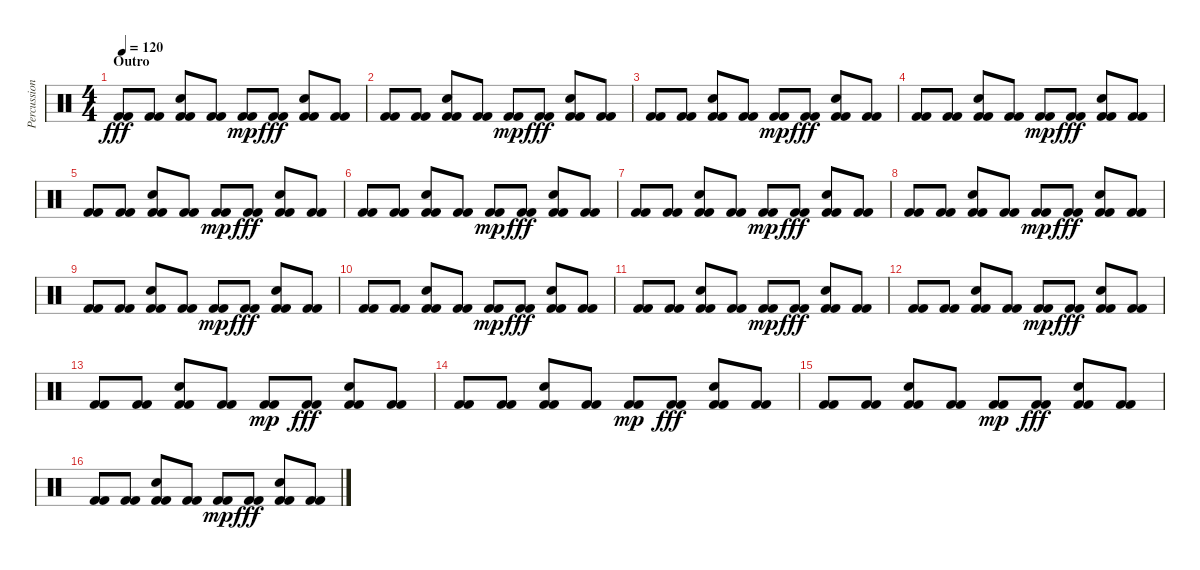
\track ("Percussion" "Percussion") {instrument percussion}
\staff {score}
\articulation defaults
\ts (4 4)
\section ("" "Outro")
\tempo 120
\clef neutral
\ks c
("Kick (hit) 2" "Kick (hit) 2").8{dy fff} ("Kick (hit) 2" "Kick (hit) 2").8 ("Snare (hit) 2" "Kick (hit) 2" "Kick (hit) 2").8 ("Kick (hit) 2" "Kick (hit) 2").8 ("Kick (hit) 2" "Kick (hit) 2").8{dy mp} ("Kick (hit) 2" "Kick (hit) 2").8{dy fff} ("Snare (hit) 2" "Kick (hit) 2" "Kick (hit) 2").8 ("Kick (hit) 2" "Kick (hit) 2").8 |
("Kick (hit) 2" "Kick (hit) 2").8 ("Kick (hit) 2" "Kick (hit) 2").8 ("Snare (hit) 2" "Kick (hit) 2" "Kick (hit) 2").8 ("Kick (hit) 2" "Kick (hit) 2").8 ("Kick (hit) 2" "Kick (hit) 2").8{dy mp} ("Kick (hit) 2" "Kick (hit) 2").8{dy fff} ("Snare (hit) 2" "Kick (hit) 2" "Kick (hit) 2").8 ("Kick (hit) 2" "Kick (hit) 2").8 |
("Kick (hit) 2" "Kick (hit) 2").8 ("Kick (hit) 2" "Kick (hit) 2").8 ("Snare (hit) 2" "Kick (hit) 2" "Kick (hit) 2").8 ("Kick (hit) 2" "Kick (hit) 2").8 ("Kick (hit) 2" "Kick (hit) 2").8{dy mp} ("Kick (hit) 2" "Kick (hit) 2").8{dy fff} ("Snare (hit) 2" "Kick (hit) 2" "Kick (hit) 2").8 ("Kick (hit) 2" "Kick (hit) 2").8 |
("Kick (hit) 2" "Kick (hit) 2").8 ("Kick (hit) 2" "Kick (hit) 2").8 ("Snare (hit) 2" "Kick (hit) 2" "Kick (hit) 2").8 ("Kick (hit) 2" "Kick (hit) 2").8 ("Kick (hit) 2" "Kick (hit) 2").8{dy mp} ("Kick (hit) 2" "Kick (hit) 2").8{dy fff} ("Snare (hit) 2" "Kick (hit) 2" "Kick (hit) 2").8 ("Kick (hit) 2" "Kick (hit) 2").8 |
("Kick (hit) 2" "Kick (hit) 2").8 ("Kick (hit) 2" "Kick (hit) 2").8 ("Snare (hit) 2" "Kick (hit) 2" "Kick (hit) 2").8 ("Kick (hit) 2" "Kick (hit) 2").8 ("Kick (hit) 2" "Kick (hit) 2").8{dy mp} ("Kick (hit) 2" "Kick (hit) 2").8{dy fff} ("Snare (hit) 2" "Kick (hit) 2" "Kick (hit) 2").8 ("Kick (hit) 2" "Kick (hit) 2").8 |
("Kick (hit) 2" "Kick (hit) 2").8 ("Kick (hit) 2" "Kick (hit) 2").8 ("Snare (hit) 2" "Kick (hit) 2" "Kick (hit) 2").8 ("Kick (hit) 2" "Kick (hit) 2").8 ("Kick (hit) 2" "Kick (hit) 2").8{dy mp} ("Kick (hit) 2" "Kick (hit) 2").8{dy fff} ("Snare (hit) 2" "Kick (hit) 2" "Kick (hit) 2").8 ("Kick (hit) 2" "Kick (hit) 2").8 |
("Kick (hit) 2" "Kick (hit) 2").8 ("Kick (hit) 2" "Kick (hit) 2").8 ("Snare (hit) 2" "Kick (hit) 2" "Kick (hit) 2").8 ("Kick (hit) 2" "Kick (hit) 2").8 ("Kick (hit) 2" "Kick (hit) 2").8{dy mp} ("Kick (hit) 2" "Kick (hit) 2").8{dy fff} ("Snare (hit) 2" "Kick (hit) 2" "Kick (hit) 2").8 ("Kick (hit) 2" "Kick (hit) 2").8 |
("Kick (hit) 2" "Kick (hit) 2").8 ("Kick (hit) 2" "Kick (hit) 2").8 ("Snare (hit) 2" "Kick (hit) 2" "Kick (hit) 2").8 ("Kick (hit) 2" "Kick (hit) 2").8 ("Kick (hit) 2" "Kick (hit) 2").8{dy mp} ("Kick (hit) 2" "Kick (hit) 2").8{dy fff} ("Snare (hit) 2" "Kick (hit) 2" "Kick (hit) 2").8 ("Kick (hit) 2" "Kick (hit) 2").8 |
("Kick (hit) 2" "Kick (hit) 2").8 ("Kick (hit) 2" "Kick (hit) 2").8 ("Snare (hit) 2" "Kick (hit) 2" "Kick (hit) 2").8 ("Kick (hit) 2" "Kick (hit) 2").8 ("Kick (hit) 2" "Kick (hit) 2").8{dy mp} ("Kick (hit) 2" "Kick (hit) 2").8{dy fff} ("Snare (hit) 2" "Kick (hit) 2" "Kick (hit) 2").8 ("Kick (hit) 2" "Kick (hit) 2").8 |
("Kick (hit) 2" "Kick (hit) 2").8 ("Kick (hit) 2" "Kick (hit) 2").8 ("Snare (hit) 2" "Kick (hit) 2" "Kick (hit) 2").8 ("Kick (hit) 2" "Kick (hit) 2").8 ("Kick (hit) 2" "Kick (hit) 2").8{dy mp} ("Kick (hit) 2" "Kick (hit) 2").8{dy fff} ("Snare (hit) 2" "Kick (hit) 2" "Kick (hit) 2").8 ("Kick (hit) 2" "Kick (hit) 2").8 |
("Kick (hit) 2" "Kick (hit) 2").8 ("Kick (hit) 2" "Kick (hit) 2").8 ("Snare (hit) 2" "Kick (hit) 2" "Kick (hit) 2").8 ("Kick (hit) 2" "Kick (hit) 2").8 ("Kick (hit) 2" "Kick (hit) 2").8{dy mp} ("Kick (hit) 2" "Kick (hit) 2").8{dy fff} ("Snare (hit) 2" "Kick (hit) 2" "Kick (hit) 2").8 ("Kick (hit) 2" "Kick (hit) 2").8 |
("Kick (hit) 2" "Kick (hit) 2").8 ("Kick (hit) 2" "Kick (hit) 2").8 ("Snare (hit) 2" "Kick (hit) 2" "Kick (hit) 2").8 ("Kick (hit) 2" "Kick (hit) 2").8 ("Kick (hit) 2" "Kick (hit) 2").8{dy mp} ("Kick (hit) 2" "Kick (hit) 2").8{dy fff} ("Snare (hit) 2" "Kick (hit) 2" "Kick (hit) 2").8 ("Kick (hit) 2" "Kick (hit) 2").8 |
("Kick (hit) 2" "Kick (hit) 2").8 ("Kick (hit) 2" "Kick (hit) 2").8 ("Snare (hit) 2" "Kick (hit) 2" "Kick (hit) 2").8 ("Kick (hit) 2" "Kick (hit) 2").8 ("Kick (hit) 2" "Kick (hit) 2").8{dy mp} ("Kick (hit) 2" "Kick (hit) 2").8{dy fff} ("Snare (hit) 2" "Kick (hit) 2" "Kick (hit) 2").8 ("Kick (hit) 2" "Kick (hit) 2").8 |
("Kick (hit) 2" "Kick (hit) 2").8 ("Kick (hit) 2" "Kick (hit) 2").8 ("Snare (hit) 2" "Kick (hit) 2" "Kick (hit) 2").8 ("Kick (hit) 2" "Kick (hit) 2").8 ("Kick (hit) 2" "Kick (hit) 2").8{dy mp} ("Kick (hit) 2" "Kick (hit) 2").8{dy fff} ("Snare (hit) 2" "Kick (hit) 2" "Kick (hit) 2").8 ("Kick (hit) 2" "Kick (hit) 2").8 |
("Kick (hit) 2" "Kick (hit) 2").8 ("Kick (hit) 2" "Kick (hit) 2").8 ("Snare (hit) 2" "Kick (hit) 2" "Kick (hit) 2").8 ("Kick (hit) 2" "Kick (hit) 2").8 ("Kick (hit) 2" "Kick (hit) 2").8{dy mp} ("Kick (hit) 2" "Kick (hit) 2").8{dy fff} ("Snare (hit) 2" "Kick (hit) 2" "Kick (hit) 2").8 ("Kick (hit) 2" "Kick (hit) 2").8 |
("Kick (hit) 2" "Kick (hit) 2").8 ("Kick (hit) 2" "Kick (hit) 2").8 ("Snare (hit) 2" "Kick (hit) 2" "Kick (hit) 2").8 ("Kick (hit) 2" "Kick (hit) 2").8 ("Kick (hit) 2" "Kick (hit) 2").8{dy mp} ("Kick (hit) 2" "Kick (hit) 2").8{dy fff} ("Snare (hit) 2" "Kick (hit) 2" "Kick (hit) 2").8 ("Kick (hit) 2" "Kick (hit) 2").8
